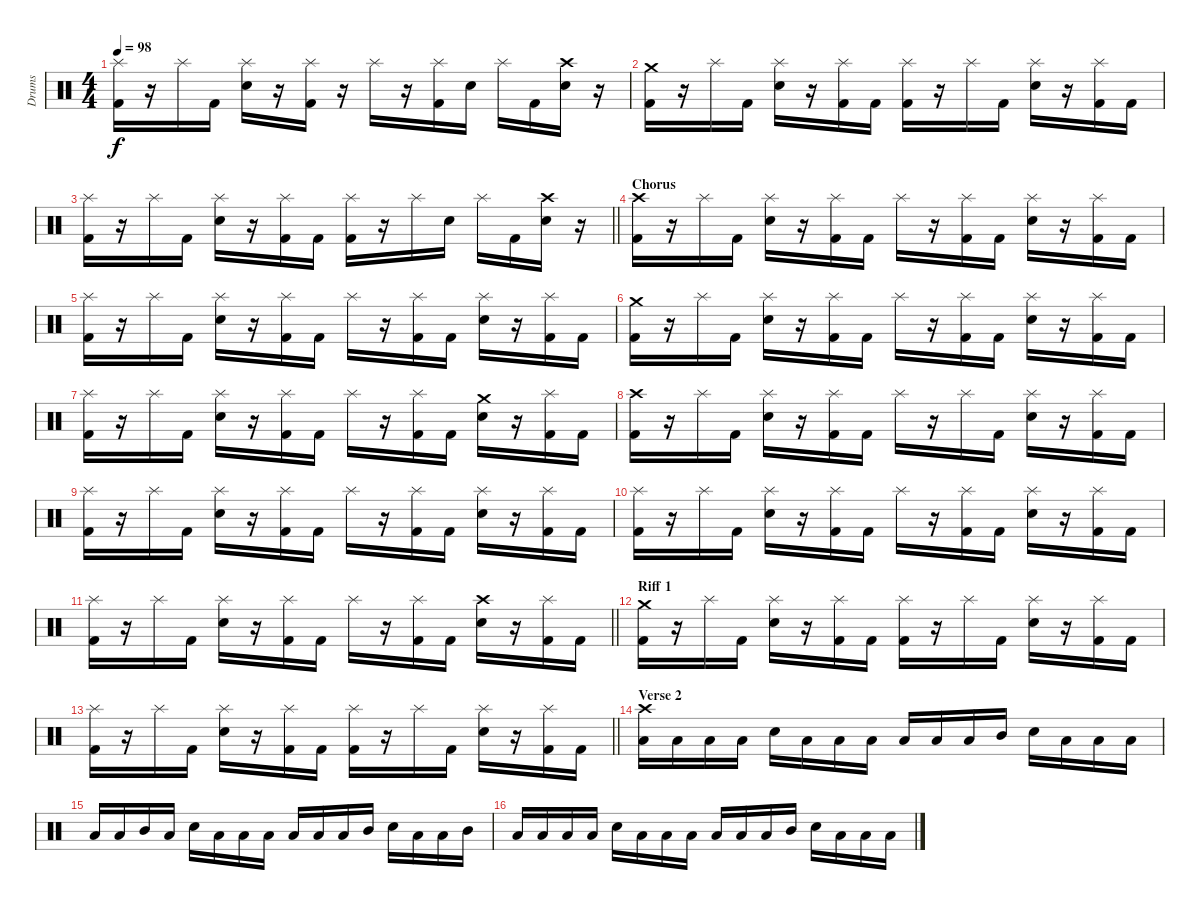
\track ("Drums" "Drums") {instrument percussion}
\staff {score}
\articulation defaults
\ts (4 4)
\tempo 98
\clef neutral
\ks c
("Splash (hit)" "Kick (hit) 2").16{dy f} r.16 "Splash (hit)".16 "Kick (hit) 2".16 ("Splash (hit)" "Electric Snare (hit)").16 r.16 ("Splash (hit)" "Kick (hit) 2").16 r.16 "Splash (hit)".16 r.16 ("Splash (hit)" "Kick (hit) 2").16 "Electric Snare (hit)".16 "Splash (hit)".16 "Kick (hit) 2".16 ("Crash high (hit)" "Electric Snare (hit)").16 r.16 |
("Crash medium (hit)" "Kick (hit) 2").16 r.16 "Splash (hit)".16 "Kick (hit) 2".16 ("Splash (hit)" "Electric Snare (hit)").16 r.16 ("Splash (hit)" "Kick (hit) 2").16 "Kick (hit) 2".16 ("Splash (hit)" "Kick (hit) 2").16 r.16 "Splash (hit)".16 "Kick (hit) 2".16 ("Splash (hit)" "Electric Snare (hit)").16 r.16 ("Splash (hit)" "Kick (hit) 2").16 "Kick (hit) 2".16 |
\barLineRight lightlight
("Splash (hit)" "Kick (hit) 2").16 r.16 "Splash (hit)".16 "Kick (hit) 2".16 ("Splash (hit)" "Electric Snare (hit)").16 r.16 ("Splash (hit)" "Kick (hit) 2").16 "Kick (hit) 2".16 ("Splash (hit)" "Kick (hit) 2").16 r.16 "Splash (hit)".16 "Electric Snare (hit)".16 "Splash (hit)".16 "Kick (hit) 2".16 ("Crash high (hit)" "Electric Snare (hit)").16 r.16 |
\section ("" "Chorus")
("Crash high (hit)" "Kick (hit) 2").16 r.16 "Splash (hit)".16 "Kick (hit) 2".16 ("Splash (hit)" "Electric Snare (hit)").16 r.16 ("Splash (hit)" "Kick (hit) 2").16 "Kick (hit) 2".16 "Splash (hit)".16 r.16 ("Splash (hit)" "Kick (hit) 2").16 "Kick (hit) 2".16 ("Splash (hit)" "Electric Snare (hit)").16 r.16 ("Splash (hit)" "Kick (hit) 2").16 "Kick (hit) 2".16 |
("Splash (hit)" "Kick (hit) 2").16 r.16 "Splash (hit)".16 "Kick (hit) 2".16 ("Splash (hit)" "Electric Snare (hit)").16 r.16 ("Splash (hit)" "Kick (hit) 2").16 "Kick (hit) 2".16 "Splash (hit)".16 r.16 ("Splash (hit)" "Kick (hit) 2").16 "Kick (hit) 2".16 ("Splash (hit)" "Electric Snare (hit)").16 r.16 ("Splash (hit)" "Kick (hit) 2").16 "Kick (hit) 2".16 |
("Crash medium (hit)" "Kick (hit) 2").16 r.16 "Splash (hit)".16 "Kick (hit) 2".16 ("Splash (hit)" "Electric Snare (hit)").16 r.16 ("Splash (hit)" "Kick (hit) 2").16 "Kick (hit) 2".16 "Splash (hit)".16 r.16 ("Splash (hit)" "Kick (hit) 2").16 "Kick (hit) 2".16 ("Splash (hit)" "Electric Snare (hit)").16 r.16 ("Splash (hit)" "Kick (hit) 2").16 "Kick (hit) 2".16 |
("Splash (hit)" "Kick (hit) 2").16 r.16 "Splash (hit)".16 "Kick (hit) 2".16 ("Splash (hit)" "Electric Snare (hit)").16 r.16 ("Splash (hit)" "Kick (hit) 2").16 "Kick (hit) 2".16 "Splash (hit)".16 r.16 ("Splash (hit)" "Kick (hit) 2").16 "Kick (hit) 2".16 ("Crash medium (hit)" "Electric Snare (hit)").16 r.16 ("Splash (hit)" "Kick (hit) 2").16 "Kick (hit) 2".16 |
("Crash high (hit)" "Kick (hit) 2").16 r.16 "Splash (hit)".16 "Kick (hit) 2".16 ("Splash (hit)" "Electric Snare (hit)").16 r.16 ("Splash (hit)" "Kick (hit) 2").16 "Kick (hit) 2".16 "Splash (hit)".16 r.16 "Splash (hit)".16 "Kick (hit) 2".16 ("Splash (hit)" "Electric Snare (hit)").16 r.16 ("Splash (hit)" "Kick (hit) 2").16 "Kick (hit) 2".16 |
("Splash (hit)" "Kick (hit) 2").16 r.16 "Splash (hit)".16 "Kick (hit) 2".16 ("Splash (hit)" "Electric Snare (hit)").16 r.16 ("Splash (hit)" "Kick (hit) 2").16 "Kick (hit) 2".16 "Splash (hit)".16 r.16 ("Splash (hit)" "Kick (hit) 2").16 "Kick (hit) 2".16 ("Splash (hit)" "Electric Snare (hit)").16 r.16 ("Splash (hit)" "Kick (hit) 2").16 "Kick (hit) 2".16 |
("Splash (hit)" "Kick (hit) 2").16 r.16 "Splash (hit)".16 "Kick (hit) 2".16 ("Splash (hit)" "Electric Snare (hit)").16 r.16 ("Splash (hit)" "Kick (hit) 2").16 "Kick (hit) 2".16 "Splash (hit)".16 r.16 ("Splash (hit)" "Kick (hit) 2").16 "Kick (hit) 2".16 ("Splash (hit)" "Electric Snare (hit)").16 r.16 ("Splash (hit)" "Kick (hit) 2").16 "Kick (hit) 2".16 |
\barLineRight lightlight
("Splash (hit)" "Kick (hit) 2").16 r.16 "Splash (hit)".16 "Kick (hit) 2".16 ("Splash (hit)" "Electric Snare (hit)").16 r.16 ("Splash (hit)" "Kick (hit) 2").16 "Kick (hit) 2".16 "Splash (hit)".16 r.16 ("Splash (hit)" "Kick (hit) 2").16 "Kick (hit) 2".16 ("Crash high (hit)" "Electric Snare (hit)").16 r.16 ("Splash (hit)" "Kick (hit) 2").16 "Kick (hit) 2".16 |
\section ("" "Riff 1")
("Crash medium (hit)" "Kick (hit) 2").16 r.16 "Splash (hit)".16 "Kick (hit) 2".16 ("Splash (hit)" "Electric Snare (hit)").16 r.16 ("Splash (hit)" "Kick (hit) 2").16 "Kick (hit) 2".16 ("Splash (hit)" "Kick (hit) 2").16 r.16 "Splash (hit)".16 "Kick (hit) 2".16 ("Splash (hit)" "Electric Snare (hit)").16 r.16 ("Splash (hit)" "Kick (hit) 2").16 "Kick (hit) 2".16 |
\barLineRight lightlight
("Splash (hit)" "Kick (hit) 2").16 r.16 "Splash (hit)".16 "Kick (hit) 2".16 ("Splash (hit)" "Electric Snare (hit)").16 r.16 ("Splash (hit)" "Kick (hit) 2").16 "Kick (hit) 2".16 ("Splash (hit)" "Kick (hit) 2").16 r.16 "Splash (hit)".16 "Kick (hit) 2".16 ("Splash (hit)" "Electric Snare (hit)").16 r.16 ("Splash (hit)" "Kick (hit) 2").16 "Kick (hit) 2".16 |
\section ("" "Verse 2")
("Crash high (hit)" "Low Floor Tom (hit)").16 "Low Floor Tom (hit)".16 "Low Floor Tom (hit)".16 "Low Floor Tom (hit)".16 "Electric Snare (hit)".16 "Low Floor Tom (hit)".16 "Low Floor Tom (hit)".16 "Low Floor Tom (hit)".16 "Low Floor Tom (hit)".16 "Low Tom (hit)".16 "Low Floor Tom (hit)".16 "Mid Tom (hit)".16 "Electric Snare (hit)".16 "Low Floor Tom (hit)".16 "Low Floor Tom (hit)".16 "Low Floor Tom (hit)".16 |
"Low Floor Tom (hit)".16 "Low Floor Tom (hit)".16 "Mid Tom (hit)".16 "Low Floor Tom (hit)".16 "Electric Snare (hit)".16 "Low Floor Tom (hit)".16 "Low Floor Tom (hit)".16 "Low Floor Tom (hit)".16 "Low Floor Tom (hit)".16 "Low Tom (hit)".16 "Low Floor Tom (hit)".16 "Mid Tom (hit)".16 "Electric Snare (hit)".16 "Low Floor Tom (hit)".16 "Low Floor Tom (hit)".16 "Mid Tom (hit)".16 |
"Low Floor Tom (hit)".16 "Low Floor Tom (hit)".16 "Low Floor Tom (hit)".16 "Low Floor Tom (hit)".16 "Electric Snare (hit)".16 "Low Floor Tom (hit)".16 "Low Floor Tom (hit)".16 "Low Floor Tom (hit)".16 "Low Floor Tom (hit)".16 "Low Tom (hit)".16 "Low Floor Tom (hit)".16 "Mid Tom (hit)".16 "Electric Snare (hit)".16 "Low Floor Tom (hit)".16 "Low Floor Tom (hit)".16 "Low Floor Tom (hit)".16
